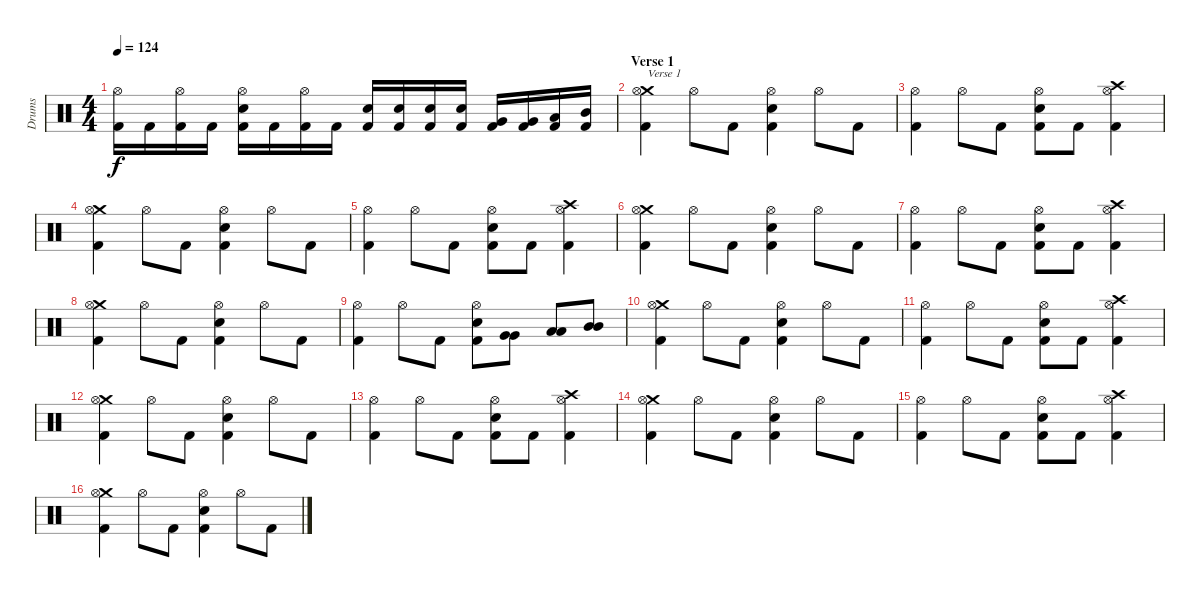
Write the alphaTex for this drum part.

\track ("Drums" "Drums") {instrument percussion}
\staff {score}
\articulation defaults
\ts (4 4)
\tempo 124
\clef neutral
\ks c
("Hi-Hat (open)" "Kick (hit) 2").16{dy f} "Kick (hit) 2".16 ("Hi-Hat (open)" "Kick (hit) 2").16 "Kick (hit) 2".16 ("Hi-Hat (open)" "Electric Snare (hit)" "Kick (hit) 2").16 "Kick (hit) 2".16 ("Hi-Hat (open)" "Kick (hit) 2").16 "Kick (hit) 2".16 ("Electric Snare (hit)" "Kick (hit) 2").16 ("Electric Snare (hit)" "Kick (hit) 2").16 ("Electric Snare (hit)" "Kick (hit) 2").16 ("Electric Snare (hit)" "Kick (hit) 2").16 ("Very Low Tom (hit)" "Kick (hit) 2").16 ("Very Low Tom (hit)" "Kick (hit) 2").16 ("Low Tom (hit)" "Kick (hit) 2").16 ("Mid Tom (hit)" "Kick (hit) 2").16 |
\section ("" "Verse 1")
("Crash medium (hit)" "Hi-Hat (open)" "Kick (hit) 2").4{txt "Verse 1"} "Hi-Hat (open)".8 "Kick (hit) 2".8 ("Hi-Hat (open)" "Electric Snare (hit)" "Kick (hit) 2").4 "Hi-Hat (open)".8 "Kick (hit) 2".8 |
("Hi-Hat (open)" "Kick (hit) 2").4 "Hi-Hat (open)".8 "Kick (hit) 2".8 ("Hi-Hat (open)" "Electric Snare (hit)" "Kick (hit) 2").8 "Kick (hit) 2".8 ("Crash high (hit)" "Hi-Hat (open)" "Kick (hit) 2").4 |
("Crash medium (hit)" "Hi-Hat (open)" "Kick (hit) 2").4 "Hi-Hat (open)".8 "Kick (hit) 2".8 ("Hi-Hat (open)" "Electric Snare (hit)" "Kick (hit) 2").4 "Hi-Hat (open)".8 "Kick (hit) 2".8 |
("Hi-Hat (open)" "Kick (hit) 2").4 "Hi-Hat (open)".8 "Kick (hit) 2".8 ("Hi-Hat (open)" "Electric Snare (hit)" "Kick (hit) 2").8 "Kick (hit) 2".8 ("Crash high (hit)" "Hi-Hat (open)" "Kick (hit) 2").4 |
("Crash medium (hit)" "Hi-Hat (open)" "Kick (hit) 2").4 "Hi-Hat (open)".8 "Kick (hit) 2".8 ("Hi-Hat (open)" "Electric Snare (hit)" "Kick (hit) 2").4 "Hi-Hat (open)".8 "Kick (hit) 2".8 |
("Hi-Hat (open)" "Kick (hit) 2").4 "Hi-Hat (open)".8 "Kick (hit) 2".8 ("Hi-Hat (open)" "Electric Snare (hit)" "Kick (hit) 2").8 "Kick (hit) 2".8 ("Crash high (hit)" "Hi-Hat (open)" "Kick (hit) 2").4 |
("Crash medium (hit)" "Hi-Hat (open)" "Kick (hit) 2").4 "Hi-Hat (open)".8 "Kick (hit) 2".8 ("Hi-Hat (open)" "Electric Snare (hit)" "Kick (hit) 2").4 "Hi-Hat (open)".8 "Kick (hit) 2".8 |
("Hi-Hat (open)" "Kick (hit) 2").4 "Hi-Hat (open)".8 "Kick (hit) 2".8 ("Hi-Hat (open)" "Electric Snare (hit)" "Kick (hit) 2").8 ("Very Low Tom (hit)" "Very Low Tom (hit)").8 ("Low Tom (hit)" "Low Tom (hit)").8 ("Mid Tom (hit)" "Mid Tom (hit)").8 |
("Crash medium (hit)" "Hi-Hat (open)" "Kick (hit) 2").4 "Hi-Hat (open)".8 "Kick (hit) 2".8 ("Hi-Hat (open)" "Electric Snare (hit)" "Kick (hit) 2").4 "Hi-Hat (open)".8 "Kick (hit) 2".8 |
("Hi-Hat (open)" "Kick (hit) 2").4 "Hi-Hat (open)".8 "Kick (hit) 2".8 ("Hi-Hat (open)" "Electric Snare (hit)" "Kick (hit) 2").8 "Kick (hit) 2".8 ("Crash high (hit)" "Hi-Hat (open)" "Kick (hit) 2").4 |
("Crash medium (hit)" "Hi-Hat (open)" "Kick (hit) 2").4 "Hi-Hat (open)".8 "Kick (hit) 2".8 ("Hi-Hat (open)" "Electric Snare (hit)" "Kick (hit) 2").4 "Hi-Hat (open)".8 "Kick (hit) 2".8 |
("Hi-Hat (open)" "Kick (hit) 2").4 "Hi-Hat (open)".8 "Kick (hit) 2".8 ("Hi-Hat (open)" "Electric Snare (hit)" "Kick (hit) 2").8 "Kick (hit) 2".8 ("Crash high (hit)" "Hi-Hat (open)" "Kick (hit) 2").4 |
("Crash medium (hit)" "Hi-Hat (open)" "Kick (hit) 2").4 "Hi-Hat (open)".8 "Kick (hit) 2".8 ("Hi-Hat (open)" "Electric Snare (hit)" "Kick (hit) 2").4 "Hi-Hat (open)".8 "Kick (hit) 2".8 |
("Hi-Hat (open)" "Kick (hit) 2").4 "Hi-Hat (open)".8 "Kick (hit) 2".8 ("Hi-Hat (open)" "Electric Snare (hit)" "Kick (hit) 2").8 "Kick (hit) 2".8 ("Crash high (hit)" "Hi-Hat (open)" "Kick (hit) 2").4 |
("Crash medium (hit)" "Hi-Hat (open)" "Kick (hit) 2").4 "Hi-Hat (open)".8 "Kick (hit) 2".8 ("Hi-Hat (open)" "Electric Snare (hit)" "Kick (hit) 2").4 "Hi-Hat (open)".8 "Kick (hit) 2".8
